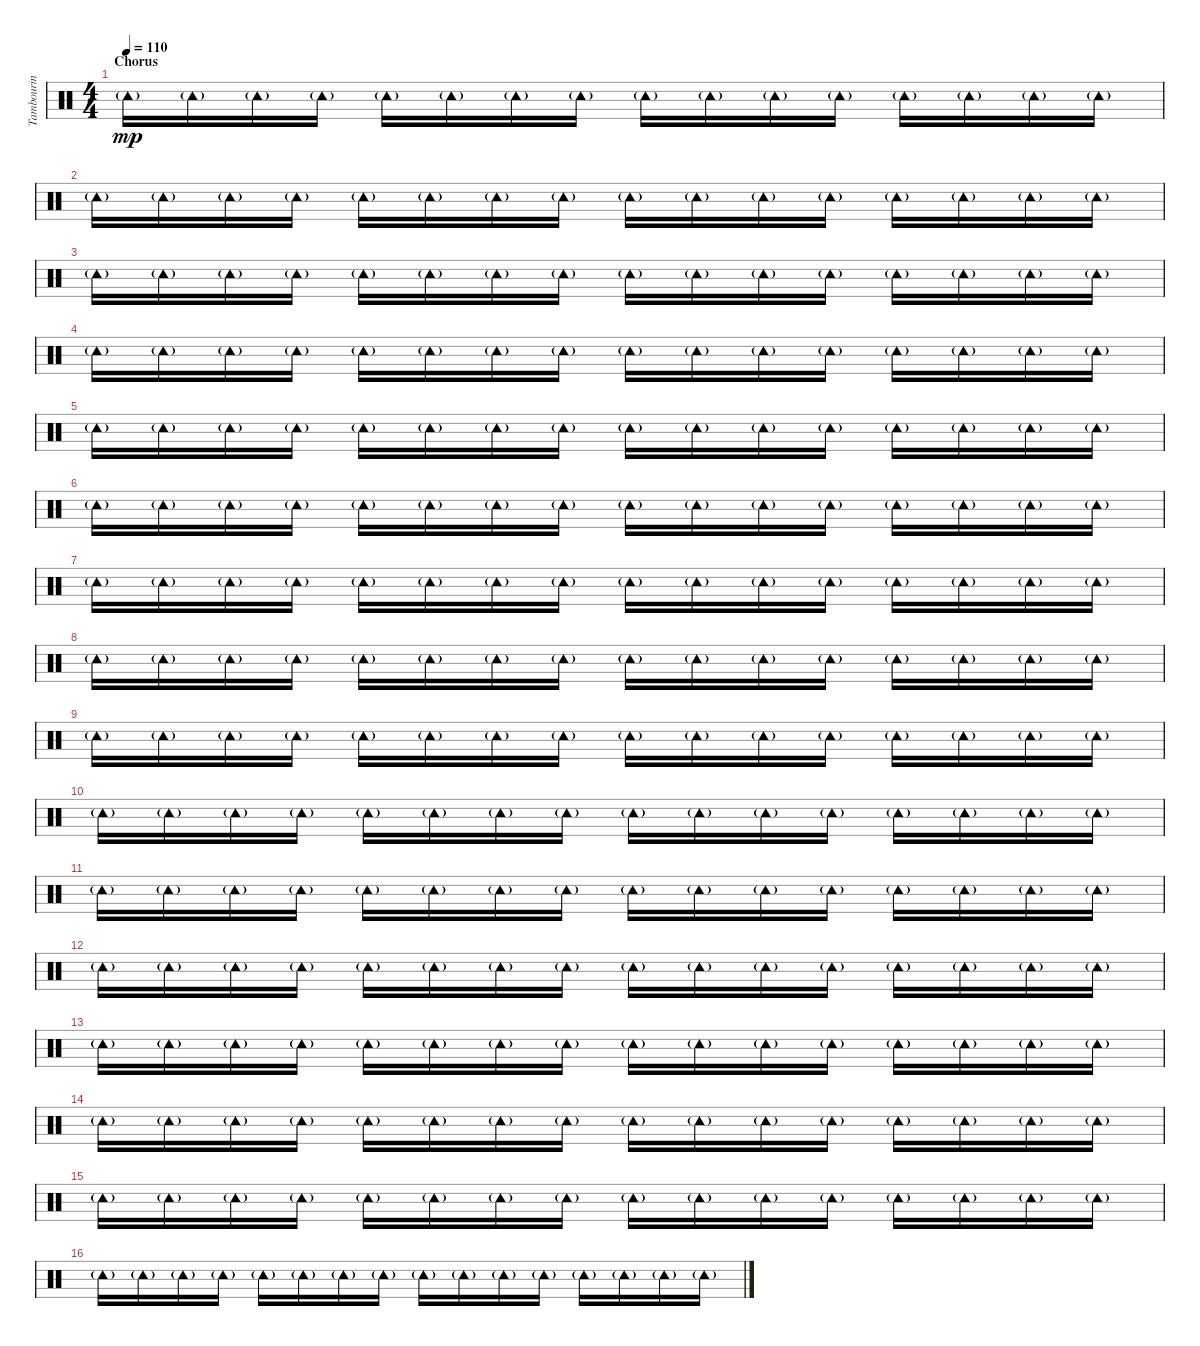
\track ("Tambourin" "Tambourin") {instrument percussion}
\staff {score}
\articulation defaults
\ts (4 4)
\section ("" "Chorus")
\tempo 110
\clef neutral
\ks c "Tambourine (hit)"{g}.16{dy mp} "Tambourine (hit)"{g}.16 "Tambourine (hit)"{g}.16 "Tambourine (hit)"{g}.16 "Tambourine (hit)"{g}.16 "Tambourine (hit)"{g}.16 "Tambourine (hit)"{g}.16 "Tambourine (hit)"{g}.16 "Tambourine (hit)"{g}.16 "Tambourine (hit)"{g}.16 "Tambourine (hit)"{g}.16 "Tambourine (hit)"{g}.16 "Tambourine (hit)"{g}.16 "Tambourine (hit)"{g}.16 "Tambourine (hit)"{g}.16 "Tambourine (hit)"{g}.16
|
"Tambourine (hit)"{g}.16 "Tambourine (hit)"{g}.16 "Tambourine (hit)"{g}.16 "Tambourine (hit)"{g}.16 "Tambourine (hit)"{g}.16 "Tambourine (hit)"{g}.16 "Tambourine (hit)"{g}.16 "Tambourine (hit)"{g}.16 "Tambourine (hit)"{g}.16 "Tambourine (hit)"{g}.16 "Tambourine (hit)"{g}.16 "Tambourine (hit)"{g}.16 "Tambourine (hit)"{g}.16 "Tambourine (hit)"{g}.16 "Tambourine (hit)"{g}.16 "Tambourine (hit)"{g}.16 |
"Tambourine (hit)"{g}.16 "Tambourine (hit)"{g}.16 "Tambourine (hit)"{g}.16 "Tambourine (hit)"{g}.16 "Tambourine (hit)"{g}.16 "Tambourine (hit)"{g}.16 "Tambourine (hit)"{g}.16 "Tambourine (hit)"{g}.16 "Tambourine (hit)"{g}.16 "Tambourine (hit)"{g}.16 "Tambourine (hit)"{g}.16 "Tambourine (hit)"{g}.16 "Tambourine (hit)"{g}.16 "Tambourine (hit)"{g}.16 "Tambourine (hit)"{g}.16 "Tambourine (hit)"{g}.16 |
"Tambourine (hit)"{g}.16 "Tambourine (hit)"{g}.16 "Tambourine (hit)"{g}.16 "Tambourine (hit)"{g}.16 "Tambourine (hit)"{g}.16 "Tambourine (hit)"{g}.16 "Tambourine (hit)"{g}.16 "Tambourine (hit)"{g}.16 "Tambourine (hit)"{g}.16 "Tambourine (hit)"{g}.16 "Tambourine (hit)"{g}.16 "Tambourine (hit)"{g}.16 "Tambourine (hit)"{g}.16 "Tambourine (hit)"{g}.16 "Tambourine (hit)"{g}.16 "Tambourine (hit)"{g}.16 |
"Tambourine (hit)"{g}.16 "Tambourine (hit)"{g}.16 "Tambourine (hit)"{g}.16 "Tambourine (hit)"{g}.16 "Tambourine (hit)"{g}.16 "Tambourine (hit)"{g}.16 "Tambourine (hit)"{g}.16 "Tambourine (hit)"{g}.16 "Tambourine (hit)"{g}.16 "Tambourine (hit)"{g}.16 "Tambourine (hit)"{g}.16 "Tambourine (hit)"{g}.16 "Tambourine (hit)"{g}.16 "Tambourine (hit)"{g}.16 "Tambourine (hit)"{g}.16 "Tambourine (hit)"{g}.16 |
"Tambourine (hit)"{g}.16 "Tambourine (hit)"{g}.16 "Tambourine (hit)"{g}.16 "Tambourine (hit)"{g}.16 "Tambourine (hit)"{g}.16 "Tambourine (hit)"{g}.16 "Tambourine (hit)"{g}.16 "Tambourine (hit)"{g}.16 "Tambourine (hit)"{g}.16 "Tambourine (hit)"{g}.16 "Tambourine (hit)"{g}.16 "Tambourine (hit)"{g}.16 "Tambourine (hit)"{g}.16 "Tambourine (hit)"{g}.16 "Tambourine (hit)"{g}.16 "Tambourine (hit)"{g}.16 |
"Tambourine (hit)"{g}.16 "Tambourine (hit)"{g}.16 "Tambourine (hit)"{g}.16 "Tambourine (hit)"{g}.16 "Tambourine (hit)"{g}.16 "Tambourine (hit)"{g}.16 "Tambourine (hit)"{g}.16 "Tambourine (hit)"{g}.16 "Tambourine (hit)"{g}.16 "Tambourine (hit)"{g}.16 "Tambourine (hit)"{g}.16 "Tambourine (hit)"{g}.16 "Tambourine (hit)"{g}.16 "Tambourine (hit)"{g}.16 "Tambourine (hit)"{g}.16 "Tambourine (hit)"{g}.16 |
"Tambourine (hit)"{g}.16 "Tambourine (hit)"{g}.16 "Tambourine (hit)"{g}.16 "Tambourine (hit)"{g}.16 "Tambourine (hit)"{g}.16 "Tambourine (hit)"{g}.16 "Tambourine (hit)"{g}.16 "Tambourine (hit)"{g}.16 "Tambourine (hit)"{g}.16 "Tambourine (hit)"{g}.16 "Tambourine (hit)"{g}.16 "Tambourine (hit)"{g}.16 "Tambourine (hit)"{g}.16 "Tambourine (hit)"{g}.16 "Tambourine (hit)"{g}.16 "Tambourine (hit)"{g}.16 |
"Tambourine (hit)"{g}.16 "Tambourine (hit)"{g}.16 "Tambourine (hit)"{g}.16 "Tambourine (hit)"{g}.16 "Tambourine (hit)"{g}.16 "Tambourine (hit)"{g}.16 "Tambourine (hit)"{g}.16 "Tambourine (hit)"{g}.16 "Tambourine (hit)"{g}.16 "Tambourine (hit)"{g}.16 "Tambourine (hit)"{g}.16 "Tambourine (hit)"{g}.16 "Tambourine (hit)"{g}.16 "Tambourine (hit)"{g}.16 "Tambourine (hit)"{g}.16 "Tambourine (hit)"{g}.16 |
"Tambourine (hit)"{g}.16 "Tambourine (hit)"{g}.16 "Tambourine (hit)"{g}.16 "Tambourine (hit)"{g}.16 "Tambourine (hit)"{g}.16 "Tambourine (hit)"{g}.16 "Tambourine (hit)"{g}.16 "Tambourine (hit)"{g}.16 "Tambourine (hit)"{g}.16 "Tambourine (hit)"{g}.16 "Tambourine (hit)"{g}.16 "Tambourine (hit)"{g}.16 "Tambourine (hit)"{g}.16 "Tambourine (hit)"{g}.16 "Tambourine (hit)"{g}.16 "Tambourine (hit)"{g}.16 |
"Tambourine (hit)"{g}.16 "Tambourine (hit)"{g}.16 "Tambourine (hit)"{g}.16 "Tambourine (hit)"{g}.16 "Tambourine (hit)"{g}.16 "Tambourine (hit)"{g}.16 "Tambourine (hit)"{g}.16 "Tambourine (hit)"{g}.16 "Tambourine (hit)"{g}.16 "Tambourine (hit)"{g}.16 "Tambourine (hit)"{g}.16 "Tambourine (hit)"{g}.16 "Tambourine (hit)"{g}.16 "Tambourine (hit)"{g}.16 "Tambourine (hit)"{g}.16 "Tambourine (hit)"{g}.16 |
"Tambourine (hit)"{g}.16 "Tambourine (hit)"{g}.16 "Tambourine (hit)"{g}.16 "Tambourine (hit)"{g}.16 "Tambourine (hit)"{g}.16 "Tambourine (hit)"{g}.16 "Tambourine (hit)"{g}.16 "Tambourine (hit)"{g}.16 "Tambourine (hit)"{g}.16 "Tambourine (hit)"{g}.16 "Tambourine (hit)"{g}.16 "Tambourine (hit)"{g}.16 "Tambourine (hit)"{g}.16 "Tambourine (hit)"{g}.16 "Tambourine (hit)"{g}.16 "Tambourine (hit)"{g}.16 |
"Tambourine (hit)"{g}.16 "Tambourine (hit)"{g}.16 "Tambourine (hit)"{g}.16 "Tambourine (hit)"{g}.16 "Tambourine (hit)"{g}.16 "Tambourine (hit)"{g}.16 "Tambourine (hit)"{g}.16 "Tambourine (hit)"{g}.16 "Tambourine (hit)"{g}.16 "Tambourine (hit)"{g}.16 "Tambourine (hit)"{g}.16 "Tambourine (hit)"{g}.16 "Tambourine (hit)"{g}.16 "Tambourine (hit)"{g}.16 "Tambourine (hit)"{g}.16 "Tambourine (hit)"{g}.16 |
"Tambourine (hit)"{g}.16 "Tambourine (hit)"{g}.16 "Tambourine (hit)"{g}.16 "Tambourine (hit)"{g}.16 "Tambourine (hit)"{g}.16 "Tambourine (hit)"{g}.16 "Tambourine (hit)"{g}.16 "Tambourine (hit)"{g}.16 "Tambourine (hit)"{g}.16 "Tambourine (hit)"{g}.16 "Tambourine (hit)"{g}.16 "Tambourine (hit)"{g}.16 "Tambourine (hit)"{g}.16 "Tambourine (hit)"{g}.16 "Tambourine (hit)"{g}.16 "Tambourine (hit)"{g}.16 |
"Tambourine (hit)"{g}.16 "Tambourine (hit)"{g}.16 "Tambourine (hit)"{g}.16 "Tambourine (hit)"{g}.16 "Tambourine (hit)"{g}.16 "Tambourine (hit)"{g}.16 "Tambourine (hit)"{g}.16 "Tambourine (hit)"{g}.16 "Tambourine (hit)"{g}.16 "Tambourine (hit)"{g}.16 "Tambourine (hit)"{g}.16 "Tambourine (hit)"{g}.16 "Tambourine (hit)"{g}.16 "Tambourine (hit)"{g}.16 "Tambourine (hit)"{g}.16 "Tambourine (hit)"{g}.16 |
"Tambourine (hit)"{g}.16 "Tambourine (hit)"{g}.16 "Tambourine (hit)"{g}.16 "Tambourine (hit)"{g}.16 "Tambourine (hit)"{g}.16 "Tambourine (hit)"{g}.16 "Tambourine (hit)"{g}.16 "Tambourine (hit)"{g}.16 "Tambourine (hit)"{g}.16 "Tambourine (hit)"{g}.16 "Tambourine (hit)"{g}.16 "Tambourine (hit)"{g}.16 "Tambourine (hit)"{g}.16 "Tambourine (hit)"{g}.16 "Tambourine (hit)"{g}.16 "Tambourine (hit)"{g}.16
